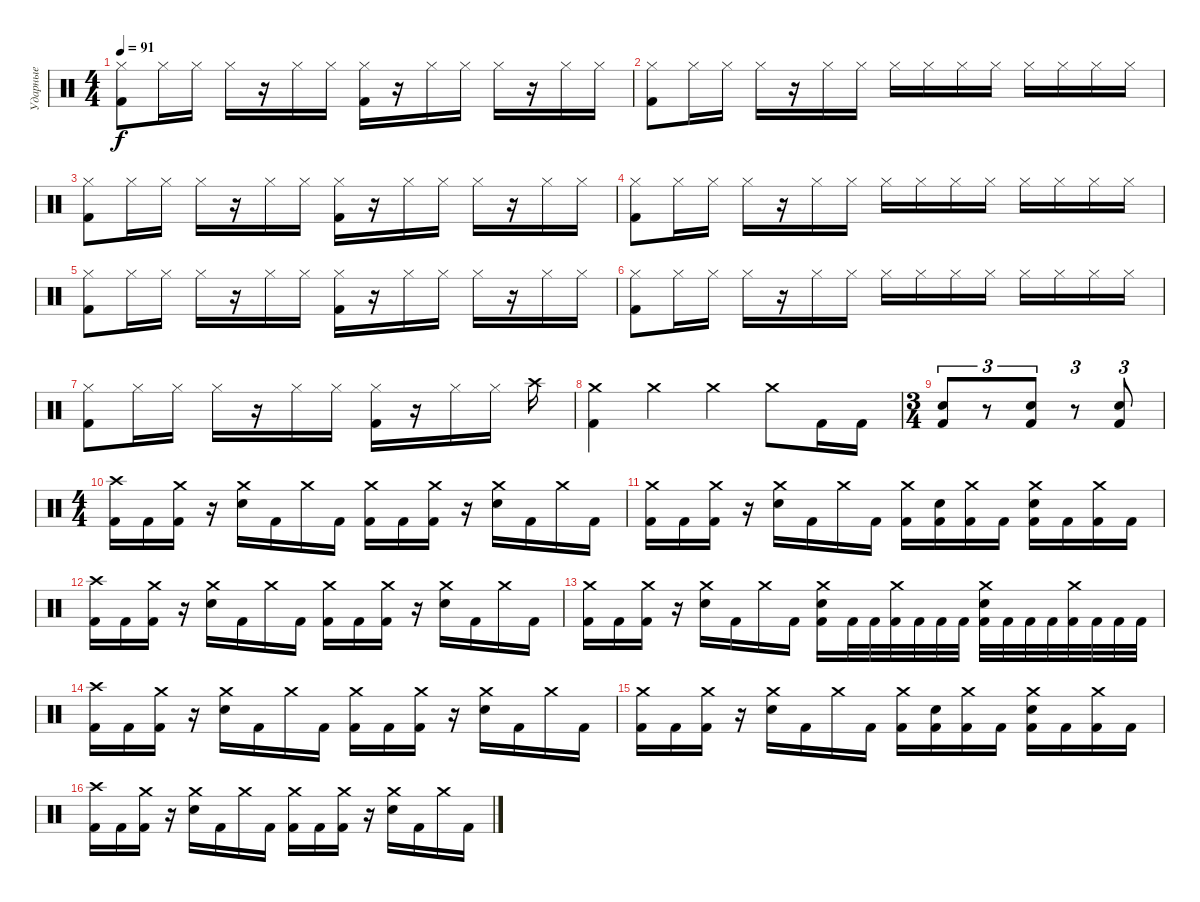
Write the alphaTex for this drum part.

\track ("Ударные" "Ударные") {instrument percussion}
\staff {score}
\articulation defaults
\ts (4 4)
\tempo 91
\clef neutral
\ks c
("Hi-Hat (closed)" "Kick (hit) 2").8{dy f} "Hi-Hat (closed)".16 "Hi-Hat (closed)".16 "Hi-Hat (closed)".16 r.16 "Hi-Hat (closed)".16 "Hi-Hat (closed)".16 ("Hi-Hat (closed)" "Kick (hit) 2").16 r.16 "Hi-Hat (closed)".16 "Hi-Hat (closed)".16 "Hi-Hat (closed)".16 r.16 "Hi-Hat (closed)".16 "Hi-Hat (closed)".16 |
("Hi-Hat (closed)" "Kick (hit) 2").8 "Hi-Hat (closed)".16 "Hi-Hat (closed)".16 "Hi-Hat (closed)".16 r.16 "Hi-Hat (closed)".16 "Hi-Hat (closed)".16 "Hi-Hat (closed)".16 "Hi-Hat (closed)".16 "Hi-Hat (closed)".16 "Hi-Hat (closed)".16 "Hi-Hat (closed)".16 "Hi-Hat (closed)".16 "Hi-Hat (closed)".16 "Hi-Hat (closed)".16 |
("Hi-Hat (closed)" "Kick (hit) 2").8 "Hi-Hat (closed)".16 "Hi-Hat (closed)".16 "Hi-Hat (closed)".16 r.16 "Hi-Hat (closed)".16 "Hi-Hat (closed)".16 ("Hi-Hat (closed)" "Kick (hit) 2").16 r.16 "Hi-Hat (closed)".16 "Hi-Hat (closed)".16 "Hi-Hat (closed)".16 r.16 "Hi-Hat (closed)".16 "Hi-Hat (closed)".16 |
("Hi-Hat (closed)" "Kick (hit) 2").8 "Hi-Hat (closed)".16 "Hi-Hat (closed)".16 "Hi-Hat (closed)".16 r.16 "Hi-Hat (closed)".16 "Hi-Hat (closed)".16 "Hi-Hat (closed)".16 "Hi-Hat (closed)".16 "Hi-Hat (closed)".16 "Hi-Hat (closed)".16 "Hi-Hat (closed)".16 "Hi-Hat (closed)".16 "Hi-Hat (closed)".16 "Hi-Hat (closed)".16 |
("Hi-Hat (closed)" "Kick (hit) 2").8 "Hi-Hat (closed)".16 "Hi-Hat (closed)".16 "Hi-Hat (closed)".16 r.16 "Hi-Hat (closed)".16 "Hi-Hat (closed)".16 ("Hi-Hat (closed)" "Kick (hit) 2").16 r.16 "Hi-Hat (closed)".16 "Hi-Hat (closed)".16 "Hi-Hat (closed)".16 r.16 "Hi-Hat (closed)".16 "Hi-Hat (closed)".16 |
("Hi-Hat (closed)" "Kick (hit) 2").8 "Hi-Hat (closed)".16 "Hi-Hat (closed)".16 "Hi-Hat (closed)".16 r.16 "Hi-Hat (closed)".16 "Hi-Hat (closed)".16 "Hi-Hat (closed)".16 "Hi-Hat (closed)".16 "Hi-Hat (closed)".16 "Hi-Hat (closed)".16 "Hi-Hat (closed)".16 "Hi-Hat (closed)".16 "Hi-Hat (closed)".16 "Hi-Hat (closed)".16 |
("Hi-Hat (closed)" "Kick (hit) 2").8 "Hi-Hat (closed)".16 "Hi-Hat (closed)".16 "Hi-Hat (closed)".16 r.16 "Hi-Hat (closed)".16 "Hi-Hat (closed)".16 ("Hi-Hat (closed)" "Kick (hit) 2").16 r.16 "Hi-Hat (closed)".16 "Hi-Hat (closed)".16 "Crash high (hit)".16 |
("Kick (hit) 2" "Crash medium (hit)").4 "Crash medium (hit)".4 "Crash medium (hit)".4 "Crash medium (hit)".8 "Kick (hit) 2".16 "Kick (hit) 2".16 |
\ts (3 4)
("Kick (hit) 2" "Electric Snare (hit)").8{tu (3 2)} r.8{tu (3 2)} ("Kick (hit) 2" "Electric Snare (hit)").8{tu (3 2)} r.8{tu (3 2)} ("Kick (hit) 2" "Electric Snare (hit)").8{tu (3 2)} |
\ts (4 4)
("Crash high (hit)" "Kick (hit) 2").16 "Kick (hit) 2".16 ("Crash medium (hit)" "Kick (hit) 2").16 r.16 ("Crash medium (hit)" "Electric Snare (hit)").16 "Kick (hit) 2".16 "Crash medium (hit)".16 "Kick (hit) 2".16 ("Crash medium (hit)" "Kick (hit) 2").16 "Kick (hit) 2".16 ("Crash medium (hit)" "Kick (hit) 2").16 r.16 ("Crash medium (hit)" "Electric Snare (hit)").16 "Kick (hit) 2".16 "Crash medium (hit)".16 "Kick (hit) 2".16 |
("Crash medium (hit)" "Kick (hit) 2").16 "Kick (hit) 2".16 ("Crash medium (hit)" "Kick (hit) 2").16 r.16 ("Crash medium (hit)" "Electric Snare (hit)").16 "Kick (hit) 2".16 "Crash medium (hit)".16 "Kick (hit) 2".16 ("Crash medium (hit)" "Kick (hit) 2").16 ("Kick (hit) 2" "Electric Snare (hit)").16 ("Crash medium (hit)" "Kick (hit) 2").16 "Kick (hit) 2".16 ("Crash medium (hit)" "Kick (hit) 2" "Electric Snare (hit)").16 "Kick (hit) 2".16 ("Crash medium (hit)" "Kick (hit) 2").16 "Kick (hit) 2".16 |
("Crash high (hit)" "Kick (hit) 2").16 "Kick (hit) 2".16 ("Crash medium (hit)" "Kick (hit) 2").16 r.16 ("Crash medium (hit)" "Electric Snare (hit)").16 "Kick (hit) 2".16 "Crash medium (hit)".16 "Kick (hit) 2".16 ("Crash medium (hit)" "Kick (hit) 2").16 "Kick (hit) 2".16 ("Crash medium (hit)" "Kick (hit) 2").16 r.16 ("Crash medium (hit)" "Electric Snare (hit)").16 "Kick (hit) 2".16 "Crash medium (hit)".16 "Kick (hit) 2".16 |
("Crash medium (hit)" "Kick (hit) 2").16 "Kick (hit) 2".16 ("Crash medium (hit)" "Kick (hit) 2").16 r.16 ("Crash medium (hit)" "Electric Snare (hit)").16 "Kick (hit) 2".16 "Crash medium (hit)".16 "Kick (hit) 2".16 ("Crash medium (hit)" "Kick (hit) 2" "Electric Snare (hit)").16 "Kick (hit) 2".32 "Kick (hit) 2".32 ("Crash medium (hit)" "Kick (hit) 2").32 "Kick (hit) 2".32 "Kick (hit) 2".32 "Kick (hit) 2".32 ("Crash medium (hit)" "Kick (hit) 2" "Electric Snare (hit)").32 "Kick (hit) 2".32 "Kick (hit) 2".32 "Kick (hit) 2".32 ("Crash medium (hit)" "Kick (hit) 2").32 "Kick (hit) 2".32 "Kick (hit) 2".32 "Kick (hit) 2".32 |
("Crash high (hit)" "Kick (hit) 2").16 "Kick (hit) 2".16 ("Crash medium (hit)" "Kick (hit) 2").16 r.16 ("Crash medium (hit)" "Electric Snare (hit)").16 "Kick (hit) 2".16 "Crash medium (hit)".16 "Kick (hit) 2".16 ("Crash medium (hit)" "Kick (hit) 2").16 "Kick (hit) 2".16 ("Crash medium (hit)" "Kick (hit) 2").16 r.16 ("Crash medium (hit)" "Electric Snare (hit)").16 "Kick (hit) 2".16 "Crash medium (hit)".16 "Kick (hit) 2".16 |
("Crash medium (hit)" "Kick (hit) 2").16 "Kick (hit) 2".16 ("Crash medium (hit)" "Kick (hit) 2").16 r.16 ("Crash medium (hit)" "Electric Snare (hit)").16 "Kick (hit) 2".16 "Crash medium (hit)".16 "Kick (hit) 2".16 ("Crash medium (hit)" "Kick (hit) 2").16 ("Kick (hit) 2" "Electric Snare (hit)").16 ("Crash medium (hit)" "Kick (hit) 2").16 "Kick (hit) 2".16 ("Crash medium (hit)" "Kick (hit) 2" "Electric Snare (hit)").16 "Kick (hit) 2".16 ("Crash medium (hit)" "Kick (hit) 2").16 "Kick (hit) 2".16 |
("Crash high (hit)" "Kick (hit) 2").16 "Kick (hit) 2".16 ("Crash medium (hit)" "Kick (hit) 2").16 r.16 ("Crash medium (hit)" "Electric Snare (hit)").16 "Kick (hit) 2".16 "Crash medium (hit)".16 "Kick (hit) 2".16 ("Crash medium (hit)" "Kick (hit) 2").16 "Kick (hit) 2".16 ("Crash medium (hit)" "Kick (hit) 2").16 r.16 ("Crash medium (hit)" "Electric Snare (hit)").16 "Kick (hit) 2".16 "Crash medium (hit)".16 "Kick (hit) 2".16
